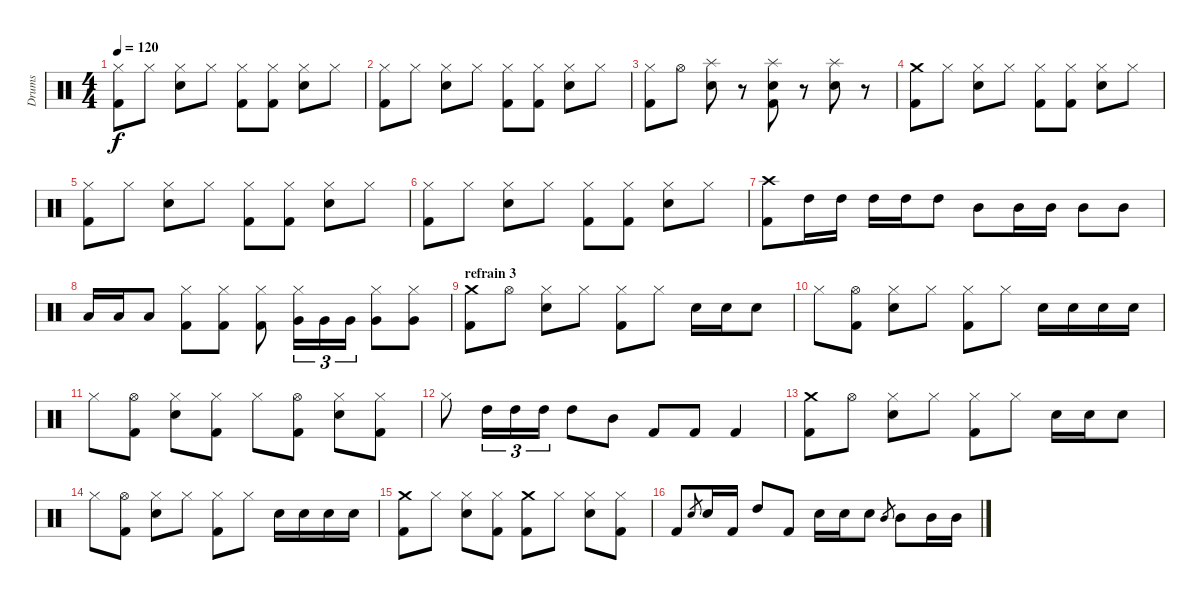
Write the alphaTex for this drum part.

\track ("Drums" "Drums") {instrument percussion}
\staff {score}
\articulation defaults
\ts (4 4)
\tempo 120
\clef neutral
\ks c
("Hi-Hat (closed)" "Kick (hit) 2").8{dy f} "Hi-Hat (closed)".8 ("Hi-Hat (closed)" "Snare (hit) 2").8 "Hi-Hat (closed)".8 ("Hi-Hat (closed)" "Kick (hit) 2").8 ("Hi-Hat (closed)" "Kick (hit) 2").8 ("Hi-Hat (closed)" "Snare (hit) 2").8 "Hi-Hat (closed)".8 |
("Hi-Hat (closed)" "Kick (hit) 2").8 "Hi-Hat (closed)".8 ("Hi-Hat (closed)" "Snare (hit) 2").8 "Hi-Hat (closed)".8 ("Hi-Hat (closed)" "Kick (hit) 2").8 ("Hi-Hat (closed)" "Kick (hit) 2").8 ("Hi-Hat (closed)" "Snare (hit) 2").8 "Hi-Hat (closed)".8 |
("Hi-Hat (closed)" "Kick (hit) 2").8 "Hi-Hat (open)".8 ("Splash (hit)" "Snare (hit) 2").8 r.8 ("Splash (hit)" "Snare (hit) 2" "Kick (hit) 2").8 r.8 ("Splash (hit)" "Snare (hit) 2").8 r.8 |
("Crash medium (hit)" "Kick (hit) 2").8 "Hi-Hat (closed)".8 ("Hi-Hat (closed)" "Snare (hit) 2").8 "Hi-Hat (closed)".8 ("Hi-Hat (closed)" "Kick (hit) 2").8 ("Hi-Hat (closed)" "Kick (hit) 2").8 ("Hi-Hat (closed)" "Snare (hit) 2").8 "Hi-Hat (closed)".8 |
("Hi-Hat (closed)" "Kick (hit) 2").8 "Hi-Hat (closed)".8 ("Hi-Hat (closed)" "Snare (hit) 2").8 "Hi-Hat (closed)".8 ("Hi-Hat (closed)" "Kick (hit) 2").8 ("Hi-Hat (closed)" "Kick (hit) 2").8 ("Hi-Hat (closed)" "Snare (hit) 2").8 "Hi-Hat (closed)".8 |
("Hi-Hat (closed)" "Kick (hit) 2").8 "Hi-Hat (closed)".8 ("Hi-Hat (closed)" "Snare (hit) 2").8 "Hi-Hat (closed)".8 ("Hi-Hat (closed)" "Kick (hit) 2").8 ("Hi-Hat (closed)" "Kick (hit) 2").8 ("Hi-Hat (closed)" "Snare (hit) 2").8 "Hi-Hat (closed)".8 |
("Crash high (hit)" "Kick (hit) 2").8 "High Tom (hit)".16 "High Tom (hit)".16 "High Tom (hit)".16 "High Tom (hit)".16 "High Tom (hit)".8 "Mid Tom (hit)".8 "Mid Tom (hit)".16 "Mid Tom (hit)".16 "Mid Tom (hit)".8 "Mid Tom (hit)".8 |
"Low Tom (hit)".16 "Low Tom (hit)".16 "Low Tom (hit)".8 ("Hi-Hat (closed)" "Kick (hit) 2").8 ("Hi-Hat (closed)" "Kick (hit) 2").8 ("Hi-Hat (closed)" "Kick (hit) 2").8 ("Hi-Hat (closed)" "Very Low Tom (hit)").16{tu (3 2)} "Very Low Tom (hit)".16{tu (3 2)} "Very Low Tom (hit)".16{tu (3 2)} ("Hi-Hat (closed)" "Very Low Tom (hit)").8 ("Hi-Hat (closed)" "Very Low Tom (hit)").8 |
\section ("" "refrain 3")
("Crash medium (hit)" "Kick (hit) 2").8 "Hi-Hat (open)".8 ("Hi-Hat (closed)" "Snare (hit) 2").8 "Hi-Hat (closed)".8 ("Hi-Hat (closed)" "Kick (hit) 2").8 "Hi-Hat (closed)".8 "Snare (hit) 2".16 "Snare (hit) 2".16 "Snare (hit) 2".8 |
"Hi-Hat (closed)".8 ("Hi-Hat (open)" "Kick (hit) 2").8 ("Hi-Hat (closed)" "Snare (hit) 2").8 "Hi-Hat (closed)".8 ("Hi-Hat (closed)" "Kick (hit) 2").8 "Hi-Hat (closed)".8 "Snare (hit) 2".16 "Snare (hit) 2".16 "Snare (hit) 2".16 "Snare (hit) 2".16 |
"Hi-Hat (closed)".8 ("Hi-Hat (open)" "Kick (hit) 2").8 ("Hi-Hat (closed)" "Snare (hit) 2").8 ("Hi-Hat (closed)" "Kick (hit) 2").8 "Hi-Hat (closed)".8 ("Hi-Hat (open)" "Kick (hit) 2").8 ("Hi-Hat (closed)" "Snare (hit) 2").8 ("Hi-Hat (closed)" "Kick (hit) 2").8 |
"Hi-Hat (closed)".8 "High Tom (hit)".16{tu (3 2)} "High Tom (hit)".16{tu (3 2)} "High Tom (hit)".16{tu (3 2)} "High Tom (hit)".8 "Mid Tom (hit)".8 "Kick (hit) 2".8 "Kick (hit) 2".8 "Kick (hit) 2".4 |
("Crash medium (hit)" "Kick (hit) 2").8 "Hi-Hat (open)".8 ("Hi-Hat (closed)" "Snare (hit) 2").8 "Hi-Hat (closed)".8 ("Hi-Hat (closed)" "Kick (hit) 2").8 "Hi-Hat (closed)".8 "Snare (hit) 2".16 "Snare (hit) 2".16 "Snare (hit) 2".8 |
"Hi-Hat (closed)".8 ("Hi-Hat (open)" "Kick (hit) 2").8 ("Hi-Hat (closed)" "Snare (hit) 2").8 "Hi-Hat (closed)".8 ("Hi-Hat (closed)" "Kick (hit) 2").8 "Hi-Hat (closed)".8 "Snare (hit) 2".16 "Snare (hit) 2".16 "Snare (hit) 2".16 "Snare (hit) 2".16 |
("Crash medium (hit)" "Kick (hit) 2").8 "Hi-Hat (closed)".8 ("Hi-Hat (closed)" "Snare (hit) 2").8 ("Hi-Hat (closed)" "Kick (hit) 2").8 ("Crash medium (hit)" "Kick (hit) 2").8 "Hi-Hat (closed)".8 ("Hi-Hat (closed)" "Snare (hit) 2").8 ("Hi-Hat (closed)" "Kick (hit) 2").8 |
"Kick (hit) 2".8 "Snare (hit) 2".8{gr} "Snare (hit) 2".16 "Kick (hit) 2".16 "High Tom (hit)".8 "Kick (hit) 2".8 "Snare (hit) 2".16 "Snare (hit) 2".16 "Snare (hit) 2".8 "Mid Tom (hit)".8{gr} "Mid Tom (hit)".8 "Mid Tom (hit)".16 "Mid Tom (hit)".16
